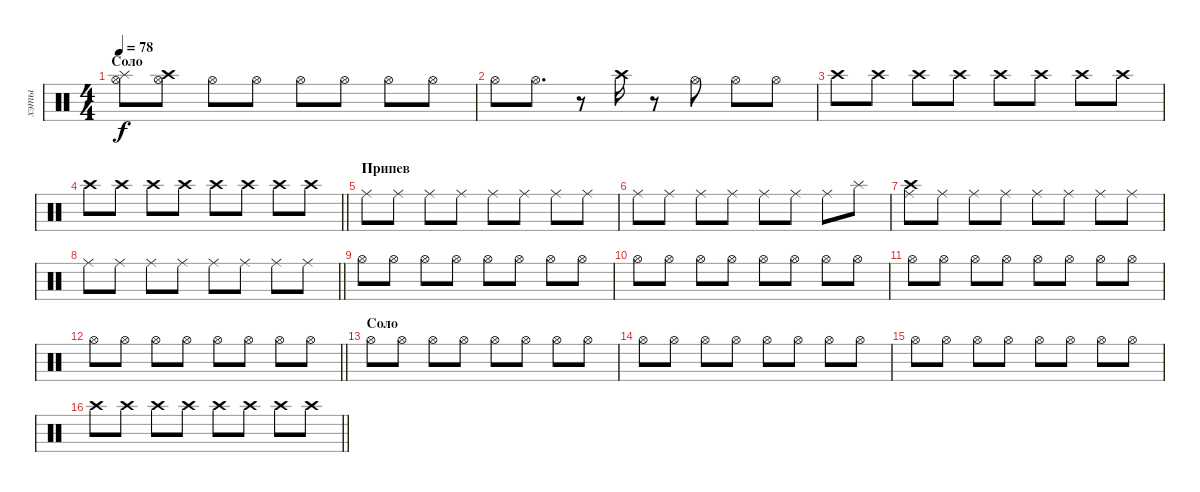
\track ("хэты" "хэты") {instrument percussion}
\staff {score}
\articulation defaults
\ts (4 4)
\section ("" "Соло")
\tempo 78
\clef neutral
\ks c
("Splash (hit)" "Hi-Hat (open)").8{dy f} ("Crash high (hit)" "Hi-Hat (open)").8 "Hi-Hat (open)".8 "Hi-Hat (open)".8 "Hi-Hat (open)".8 "Hi-Hat (open)".8 "Hi-Hat (open)".8 "Hi-Hat (open)".8 |
"Hi-Hat (open)".8 "Hi-Hat (open)".8{d} r.8 "Crash high (hit)".16 r.8 "Hi-Hat (open)".8 "Hi-Hat (open)".8 "Hi-Hat (open)".8 |
"Crash high (hit)".8 "Crash high (hit)".8 "Crash high (hit)".8 "Crash high (hit)".8 "Crash high (hit)".8 "Crash high (hit)".8 "Crash high (hit)".8 "Crash high (hit)".8 |
\barLineRight lightlight "Crash high (hit)".8 "Crash high (hit)".8 "Crash high (hit)".8 "Crash high (hit)".8 "Crash high (hit)".8 "Crash high (hit)".8 "Crash high (hit)".8 "Crash high (hit)".8
|
\section ("" "Припев")
"Ride (middle)".8 "Ride (middle)".8 "Ride (middle)".8 "Ride (middle)".8 "Ride (middle)".8 "Ride (middle)".8 "Ride (middle)".8 "Ride (middle)".8 |
"Ride (middle)".8 "Ride (middle)".8 "Ride (middle)".8 "Ride (middle)".8 "Ride (middle)".8 "Ride (middle)".8 "Ride (middle)".8 "Splash (hit)".8 |
("Crash high (hit)" "Ride (middle)").8 "Ride (middle)".8 "Ride (middle)".8 "Ride (middle)".8 "Ride (middle)".8 "Ride (middle)".8 "Ride (middle)".8 "Ride (middle)".8 |
\barLineRight lightlight "Ride (middle)".8 "Ride (middle)".8 "Ride (middle)".8 "Ride (middle)".8 "Ride (middle)".8 "Ride (middle)".8 "Ride (middle)".8 "Ride (middle)".8
|
"Hi-Hat (open)".8 "Hi-Hat (open)".8 "Hi-Hat (open)".8 "Hi-Hat (open)".8 "Hi-Hat (open)".8 "Hi-Hat (open)".8 "Hi-Hat (open)".8 "Hi-Hat (open)".8 |
"Hi-Hat (open)".8 "Hi-Hat (open)".8 "Hi-Hat (open)".8 "Hi-Hat (open)".8 "Hi-Hat (open)".8 "Hi-Hat (open)".8 "Hi-Hat (open)".8 "Hi-Hat (open)".8 |
"Hi-Hat (open)".8 "Hi-Hat (open)".8 "Hi-Hat (open)".8 "Hi-Hat (open)".8 "Hi-Hat (open)".8 "Hi-Hat (open)".8 "Hi-Hat (open)".8 "Hi-Hat (open)".8 |
\barLineRight lightlight "Hi-Hat (open)".8 "Hi-Hat (open)".8 "Hi-Hat (open)".8 "Hi-Hat (open)".8 "Hi-Hat (open)".8 "Hi-Hat (open)".8 "Hi-Hat (open)".8 "Hi-Hat (open)".8
|
\section ("" "Соло")
"Hi-Hat (open)".8 "Hi-Hat (open)".8 "Hi-Hat (open)".8 "Hi-Hat (open)".8 "Hi-Hat (open)".8 "Hi-Hat (open)".8 "Hi-Hat (open)".8 "Hi-Hat (open)".8 |
"Hi-Hat (open)".8 "Hi-Hat (open)".8 "Hi-Hat (open)".8 "Hi-Hat (open)".8 "Hi-Hat (open)".8 "Hi-Hat (open)".8 "Hi-Hat (open)".8 "Hi-Hat (open)".8 |
"Hi-Hat (open)".8 "Hi-Hat (open)".8 "Hi-Hat (open)".8 "Hi-Hat (open)".8 "Hi-Hat (open)".8 "Hi-Hat (open)".8 "Hi-Hat (open)".8 "Hi-Hat (open)".8 |
\barLineRight lightlight "Crash high (hit)".8 "Crash high (hit)".8 "Crash high (hit)".8 "Crash high (hit)".8 "Crash high (hit)".8 "Crash high (hit)".8 "Crash high (hit)".8 "Crash high (hit)".8
